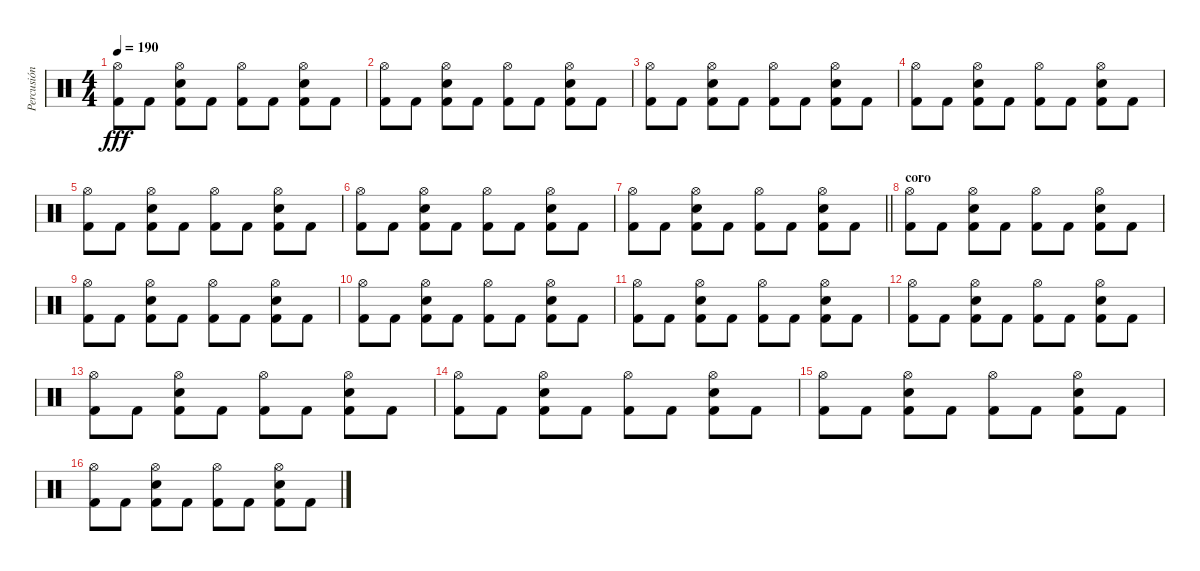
\track ("Percusión" "Percusión") {instrument percussion}
\staff {score}
\articulation defaults
\ts (4 4)
\tempo 190
\clef neutral
\ks c
("Hi-Hat (open)" "Kick (hit) 2").8{dy fff} "Kick (hit) 2".8 ("Hi-Hat (open)" "Electric Snare (hit)" "Kick (hit) 2").8 "Kick (hit) 2".8 ("Hi-Hat (open)" "Kick (hit) 2").8 "Kick (hit) 2".8 ("Hi-Hat (open)" "Electric Snare (hit)" "Kick (hit) 2").8 "Kick (hit) 2".8 |
("Hi-Hat (open)" "Kick (hit) 2").8 "Kick (hit) 2".8 ("Hi-Hat (open)" "Electric Snare (hit)" "Kick (hit) 2").8 "Kick (hit) 2".8 ("Hi-Hat (open)" "Kick (hit) 2").8 "Kick (hit) 2".8 ("Hi-Hat (open)" "Electric Snare (hit)" "Kick (hit) 2").8 "Kick (hit) 2".8 |
("Hi-Hat (open)" "Kick (hit) 2").8 "Kick (hit) 2".8 ("Hi-Hat (open)" "Electric Snare (hit)" "Kick (hit) 2").8 "Kick (hit) 2".8 ("Hi-Hat (open)" "Kick (hit) 2").8 "Kick (hit) 2".8 ("Hi-Hat (open)" "Electric Snare (hit)" "Kick (hit) 2").8 "Kick (hit) 2".8 |
("Hi-Hat (open)" "Kick (hit) 2").8 "Kick (hit) 2".8 ("Hi-Hat (open)" "Electric Snare (hit)" "Kick (hit) 2").8 "Kick (hit) 2".8 ("Hi-Hat (open)" "Kick (hit) 2").8 "Kick (hit) 2".8 ("Hi-Hat (open)" "Electric Snare (hit)" "Kick (hit) 2").8 "Kick (hit) 2".8 |
("Hi-Hat (open)" "Kick (hit) 2").8 "Kick (hit) 2".8 ("Hi-Hat (open)" "Electric Snare (hit)" "Kick (hit) 2").8 "Kick (hit) 2".8 ("Hi-Hat (open)" "Kick (hit) 2").8 "Kick (hit) 2".8 ("Hi-Hat (open)" "Electric Snare (hit)" "Kick (hit) 2").8 "Kick (hit) 2".8 |
("Hi-Hat (open)" "Kick (hit) 2").8 "Kick (hit) 2".8 ("Hi-Hat (open)" "Electric Snare (hit)" "Kick (hit) 2").8 "Kick (hit) 2".8 ("Hi-Hat (open)" "Kick (hit) 2").8 "Kick (hit) 2".8 ("Hi-Hat (open)" "Electric Snare (hit)" "Kick (hit) 2").8 "Kick (hit) 2".8 |
\barLineRight lightlight
("Hi-Hat (open)" "Kick (hit) 2").8 "Kick (hit) 2".8 ("Hi-Hat (open)" "Electric Snare (hit)" "Kick (hit) 2").8 "Kick (hit) 2".8 ("Hi-Hat (open)" "Kick (hit) 2").8 "Kick (hit) 2".8 ("Hi-Hat (open)" "Electric Snare (hit)" "Kick (hit) 2").8 "Kick (hit) 2".8 |
\section ("" "coro")
("Hi-Hat (open)" "Kick (hit) 2").8 "Kick (hit) 2".8 ("Hi-Hat (open)" "Electric Snare (hit)" "Kick (hit) 2").8 "Kick (hit) 2".8 ("Hi-Hat (open)" "Kick (hit) 2").8 "Kick (hit) 2".8 ("Hi-Hat (open)" "Electric Snare (hit)" "Kick (hit) 2").8 "Kick (hit) 2".8 |
("Hi-Hat (open)" "Kick (hit) 2").8 "Kick (hit) 2".8 ("Hi-Hat (open)" "Electric Snare (hit)" "Kick (hit) 2").8 "Kick (hit) 2".8 ("Hi-Hat (open)" "Kick (hit) 2").8 "Kick (hit) 2".8 ("Hi-Hat (open)" "Electric Snare (hit)" "Kick (hit) 2").8 "Kick (hit) 2".8 |
("Hi-Hat (open)" "Kick (hit) 2").8 "Kick (hit) 2".8 ("Hi-Hat (open)" "Electric Snare (hit)" "Kick (hit) 2").8 "Kick (hit) 2".8 ("Hi-Hat (open)" "Kick (hit) 2").8 "Kick (hit) 2".8 ("Hi-Hat (open)" "Electric Snare (hit)" "Kick (hit) 2").8 "Kick (hit) 2".8 |
("Hi-Hat (open)" "Kick (hit) 2").8 "Kick (hit) 2".8 ("Hi-Hat (open)" "Electric Snare (hit)" "Kick (hit) 2").8 "Kick (hit) 2".8 ("Hi-Hat (open)" "Kick (hit) 2").8 "Kick (hit) 2".8 ("Hi-Hat (open)" "Electric Snare (hit)" "Kick (hit) 2").8 "Kick (hit) 2".8 |
("Hi-Hat (open)" "Kick (hit) 2").8 "Kick (hit) 2".8 ("Hi-Hat (open)" "Electric Snare (hit)" "Kick (hit) 2").8 "Kick (hit) 2".8 ("Hi-Hat (open)" "Kick (hit) 2").8 "Kick (hit) 2".8 ("Hi-Hat (open)" "Electric Snare (hit)" "Kick (hit) 2").8 "Kick (hit) 2".8 |
("Hi-Hat (open)" "Kick (hit) 2").8 "Kick (hit) 2".8 ("Hi-Hat (open)" "Electric Snare (hit)" "Kick (hit) 2").8 "Kick (hit) 2".8 ("Hi-Hat (open)" "Kick (hit) 2").8 "Kick (hit) 2".8 ("Hi-Hat (open)" "Electric Snare (hit)" "Kick (hit) 2").8 "Kick (hit) 2".8 |
("Hi-Hat (open)" "Kick (hit) 2").8 "Kick (hit) 2".8 ("Hi-Hat (open)" "Electric Snare (hit)" "Kick (hit) 2").8 "Kick (hit) 2".8 ("Hi-Hat (open)" "Kick (hit) 2").8 "Kick (hit) 2".8 ("Hi-Hat (open)" "Electric Snare (hit)" "Kick (hit) 2").8 "Kick (hit) 2".8 |
("Hi-Hat (open)" "Kick (hit) 2").8 "Kick (hit) 2".8 ("Hi-Hat (open)" "Electric Snare (hit)" "Kick (hit) 2").8 "Kick (hit) 2".8 ("Hi-Hat (open)" "Kick (hit) 2").8 "Kick (hit) 2".8 ("Hi-Hat (open)" "Electric Snare (hit)" "Kick (hit) 2").8 "Kick (hit) 2".8 |
("Hi-Hat (open)" "Kick (hit) 2").8 "Kick (hit) 2".8 ("Hi-Hat (open)" "Electric Snare (hit)" "Kick (hit) 2").8 "Kick (hit) 2".8 ("Hi-Hat (open)" "Kick (hit) 2").8 "Kick (hit) 2".8 ("Hi-Hat (open)" "Electric Snare (hit)" "Kick (hit) 2").8 "Kick (hit) 2".8
